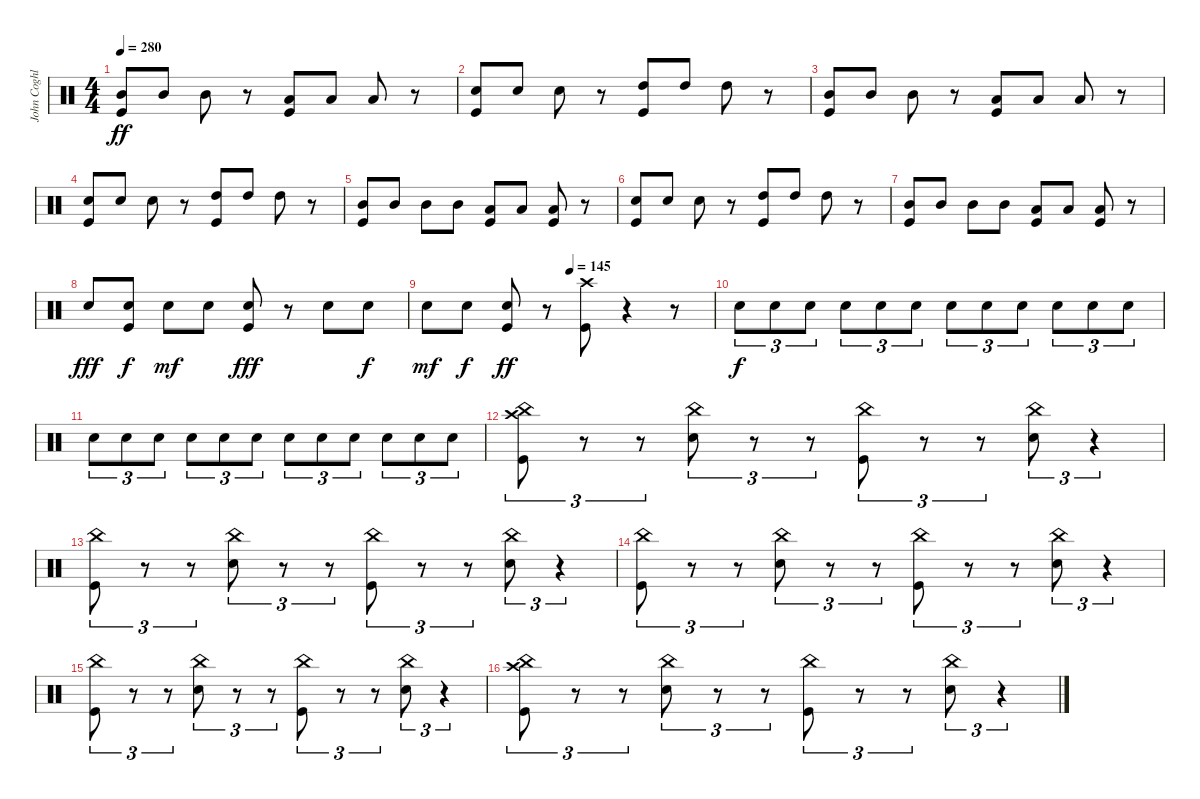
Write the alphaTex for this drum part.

\track ("John Coghlan" "John Coghl") {instrument percussion}
\staff {score}
\articulation defaults
\ts (4 4)
\tempo 280
\clef neutral
\ks c
("Mid Tom (hit)" "Kick (hit)").8{dy ff} "Mid Tom (hit)".8 "Mid Tom (hit)".8 r.8 ("Low Tom (hit)" "Kick (hit)").8 "Low Tom (hit)".8 "Low Tom (hit)".8 r.8 |
("Electric Snare (hit)" "Kick (hit)").8 "Electric Snare (hit)".8 "Electric Snare (hit)".8 r.8 ("High Tom (hit)" "Kick (hit)").8 "High Tom (hit)".8 "High Tom (hit)".8 r.8 |
("Mid Tom (hit)" "Kick (hit)").8 "Mid Tom (hit)".8 "Mid Tom (hit)".8 r.8 ("Low Tom (hit)" "Kick (hit)").8 "Low Tom (hit)".8 "Low Tom (hit)".8 r.8 |
("Electric Snare (hit)" "Kick (hit)").8 "Electric Snare (hit)".8 "Electric Snare (hit)".8 r.8 ("High Tom (hit)" "Kick (hit)").8 "High Tom (hit)".8 "High Tom (hit)".8 r.8 |
("Mid Tom (hit)" "Kick (hit)").8 "Mid Tom (hit)".8 "Mid Tom (hit)".8 "Mid Tom (hit)".8 ("Low Tom (hit)" "Kick (hit)").8 "Low Tom (hit)".8 ("Low Tom (hit)" "Kick (hit)").8 r.8 |
("Electric Snare (hit)" "Kick (hit)").8 "Electric Snare (hit)".8 "Electric Snare (hit)".8 r.8 ("High Tom (hit)" "Kick (hit)").8 "High Tom (hit)".8 "High Tom (hit)".8 r.8 |
("Mid Tom (hit)" "Kick (hit)").8 "Mid Tom (hit)".8 "Mid Tom (hit)".8 "Mid Tom (hit)".8 ("Low Tom (hit)" "Kick (hit)").8 "Low Tom (hit)".8 ("Low Tom (hit)" "Kick (hit)").8 r.8 |
"Electric Snare (hit)".8{dy fff} ("Electric Snare (hit)" "Kick (hit)").8{dy f} "Electric Snare (hit)".8{dy mf} "Electric Snare (hit)".8 ("Electric Snare (hit)" "Kick (hit)").8{dy fff} r.8 "Electric Snare (hit)".8 "Electric Snare (hit)".8{dy f} |
\tempo (145 0.5)
"Electric Snare (hit)".8{dy mf} "Electric Snare (hit)".8{dy f} ("Electric Snare (hit)" "Kick (hit)").8{dy ff} r.8 ("Crash high (hit)" "Kick (hit)").8 r.4 r.8 |
"Electric Snare (hit)".8{tu (3 2) dy f} "Electric Snare (hit)".8{tu (3 2)} "Electric Snare (hit)".8{tu (3 2)} "Electric Snare (hit)".8{tu (3 2)} "Electric Snare (hit)".8{tu (3 2)} "Electric Snare (hit)".8{tu (3 2)} "Electric Snare (hit)".8{tu (3 2)} "Electric Snare (hit)".8{tu (3 2)} "Electric Snare (hit)".8{tu (3 2)} "Electric Snare (hit)".8{tu (3 2)} "Electric Snare (hit)".8{tu (3 2)} "Electric Snare (hit)".8{tu (3 2)} |
"Electric Snare (hit)".8{tu (3 2)} "Electric Snare (hit)".8{tu (3 2)} "Electric Snare (hit)".8{tu (3 2)} "Electric Snare (hit)".8{tu (3 2)} "Electric Snare (hit)".8{tu (3 2)} "Electric Snare (hit)".8{tu (3 2)} "Electric Snare (hit)".8{tu (3 2)} "Electric Snare (hit)".8{tu (3 2)} "Electric Snare (hit)".8{tu (3 2)} "Electric Snare (hit)".8{tu (3 2)} "Electric Snare (hit)".8{tu (3 2)} "Electric Snare (hit)".8{tu (3 2)} |
("Crash high (hit)" "China (hit)" "Kick (hit)").8{tu (3 2)} r.8{tu (3 2)} r.8{tu (3 2)} ("Electric Snare (hit)" "China (hit)").8{tu (3 2)} r.8{tu (3 2)} r.8{tu (3 2)} ("China (hit)" "Kick (hit)").8{tu (3 2)} r.8{tu (3 2)} r.8{tu (3 2)} ("Electric Snare (hit)" "China (hit)").8{tu (3 2)} r.4{tu (3 2)} |
("China (hit)" "Kick (hit)").8{tu (3 2)} r.8{tu (3 2)} r.8{tu (3 2)} ("Electric Snare (hit)" "China (hit)").8{tu (3 2)} r.8{tu (3 2)} r.8{tu (3 2)} ("China (hit)" "Kick (hit)").8{tu (3 2)} r.8{tu (3 2)} r.8{tu (3 2)} ("Electric Snare (hit)" "China (hit)").8{tu (3 2)} r.4{tu (3 2)} |
("China (hit)" "Kick (hit)").8{tu (3 2)} r.8{tu (3 2)} r.8{tu (3 2)} ("Electric Snare (hit)" "China (hit)").8{tu (3 2)} r.8{tu (3 2)} r.8{tu (3 2)} ("China (hit)" "Kick (hit)").8{tu (3 2)} r.8{tu (3 2)} r.8{tu (3 2)} ("Electric Snare (hit)" "China (hit)").8{tu (3 2)} r.4{tu (3 2)} |
("China (hit)" "Kick (hit)").8{tu (3 2)} r.8{tu (3 2)} r.8{tu (3 2)} ("Electric Snare (hit)" "China (hit)").8{tu (3 2)} r.8{tu (3 2)} r.8{tu (3 2)} ("China (hit)" "Kick (hit)").8{tu (3 2)} r.8{tu (3 2)} r.8{tu (3 2)} ("Electric Snare (hit)" "China (hit)").8{tu (3 2)} r.4{tu (3 2)} |
("Crash high (hit)" "China (hit)" "Kick (hit)").8{tu (3 2)} r.8{tu (3 2)} r.8{tu (3 2)} ("Electric Snare (hit)" "China (hit)").8{tu (3 2)} r.8{tu (3 2)} r.8{tu (3 2)} ("China (hit)" "Kick (hit)").8{tu (3 2)} r.8{tu (3 2)} r.8{tu (3 2)} ("Electric Snare (hit)" "China (hit)").8{tu (3 2)} r.4{tu (3 2)}
